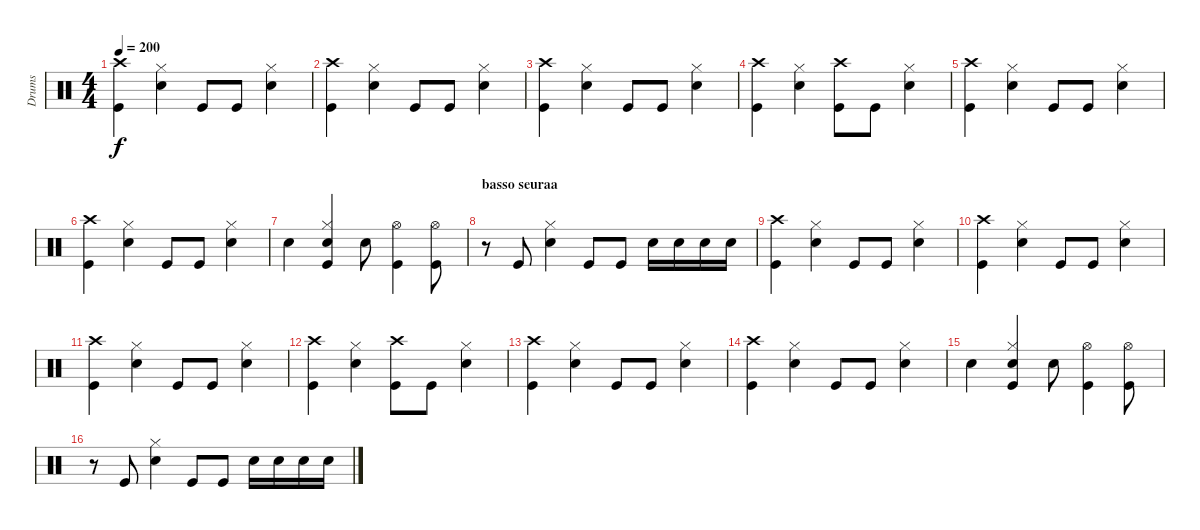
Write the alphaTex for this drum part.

\track ("Drums" "Drums") {instrument percussion}
\staff {score}
\articulation defaults
\ts (4 4)
\tempo 200
\clef neutral
\ks c
("Crash high (hit)" "Kick (hit)").4{dy f} ("Hi-Hat (closed)" "Snare (hit) 2").4 "Kick (hit)".8 "Kick (hit)".8 ("Hi-Hat (closed)" "Snare (hit) 2").4 |
("Crash high (hit)" "Kick (hit)").4 ("Hi-Hat (closed)" "Snare (hit) 2").4 "Kick (hit)".8 "Kick (hit)".8 ("Hi-Hat (closed)" "Snare (hit) 2").4 |
("Crash high (hit)" "Kick (hit)").4 ("Hi-Hat (closed)" "Snare (hit) 2").4 "Kick (hit)".8 "Kick (hit)".8 ("Hi-Hat (closed)" "Snare (hit) 2").4 |
("Crash high (hit)" "Kick (hit)").4 ("Hi-Hat (closed)" "Snare (hit) 2").4 ("Crash high (hit)" "Kick (hit)").8 "Kick (hit)".8 ("Hi-Hat (closed)" "Snare (hit) 2").4 |
("Crash high (hit)" "Kick (hit)").4 ("Hi-Hat (closed)" "Snare (hit) 2").4 "Kick (hit)".8 "Kick (hit)".8 ("Hi-Hat (closed)" "Snare (hit) 2").4 |
("Crash high (hit)" "Kick (hit)").4 ("Hi-Hat (closed)" "Snare (hit) 2").4 "Kick (hit)".8 "Kick (hit)".8 ("Hi-Hat (closed)" "Snare (hit) 2").4 |
"Snare (hit) 2".4 ("Hi-Hat (closed)" "Snare (hit) 2" "Kick (hit)").4 "Snare (hit) 2".8 ("Hi-Hat (open)" "Kick (hit)").4 ("Hi-Hat (open)" "Kick (hit)").8 |
\section ("" "basso seuraa")
r.8 "Kick (hit)".8 ("Hi-Hat (closed)" "Snare (hit) 2").4 "Kick (hit)".8 "Kick (hit)".8 "Snare (hit) 2".16 "Snare (hit) 2".16 "Snare (hit) 2".16 "Snare (hit) 2".16 |
("Crash high (hit)" "Kick (hit)").4 ("Hi-Hat (closed)" "Snare (hit) 2").4 "Kick (hit)".8 "Kick (hit)".8 ("Hi-Hat (closed)" "Snare (hit) 2").4 |
("Crash high (hit)" "Kick (hit)").4 ("Hi-Hat (closed)" "Snare (hit) 2").4 "Kick (hit)".8 "Kick (hit)".8 ("Hi-Hat (closed)" "Snare (hit) 2").4 |
("Crash high (hit)" "Kick (hit)").4 ("Hi-Hat (closed)" "Snare (hit) 2").4 "Kick (hit)".8 "Kick (hit)".8 ("Hi-Hat (closed)" "Snare (hit) 2").4 |
("Crash high (hit)" "Kick (hit)").4 ("Hi-Hat (closed)" "Snare (hit) 2").4 ("Crash high (hit)" "Kick (hit)").8 "Kick (hit)".8 ("Hi-Hat (closed)" "Snare (hit) 2").4 |
("Crash high (hit)" "Kick (hit)").4 ("Hi-Hat (closed)" "Snare (hit) 2").4 "Kick (hit)".8 "Kick (hit)".8 ("Hi-Hat (closed)" "Snare (hit) 2").4 |
("Crash high (hit)" "Kick (hit)").4 ("Hi-Hat (closed)" "Snare (hit) 2").4 "Kick (hit)".8 "Kick (hit)".8 ("Hi-Hat (closed)" "Snare (hit) 2").4 |
"Snare (hit) 2".4 ("Hi-Hat (closed)" "Snare (hit) 2" "Kick (hit)").4 "Snare (hit) 2".8 ("Hi-Hat (open)" "Kick (hit)").4 ("Hi-Hat (open)" "Kick (hit)").8 |
r.8 "Kick (hit)".8 ("Hi-Hat (closed)" "Snare (hit) 2").4 "Kick (hit)".8 "Kick (hit)".8 "Snare (hit) 2".16 "Snare (hit) 2".16 "Snare (hit) 2".16 "Snare (hit) 2".16
